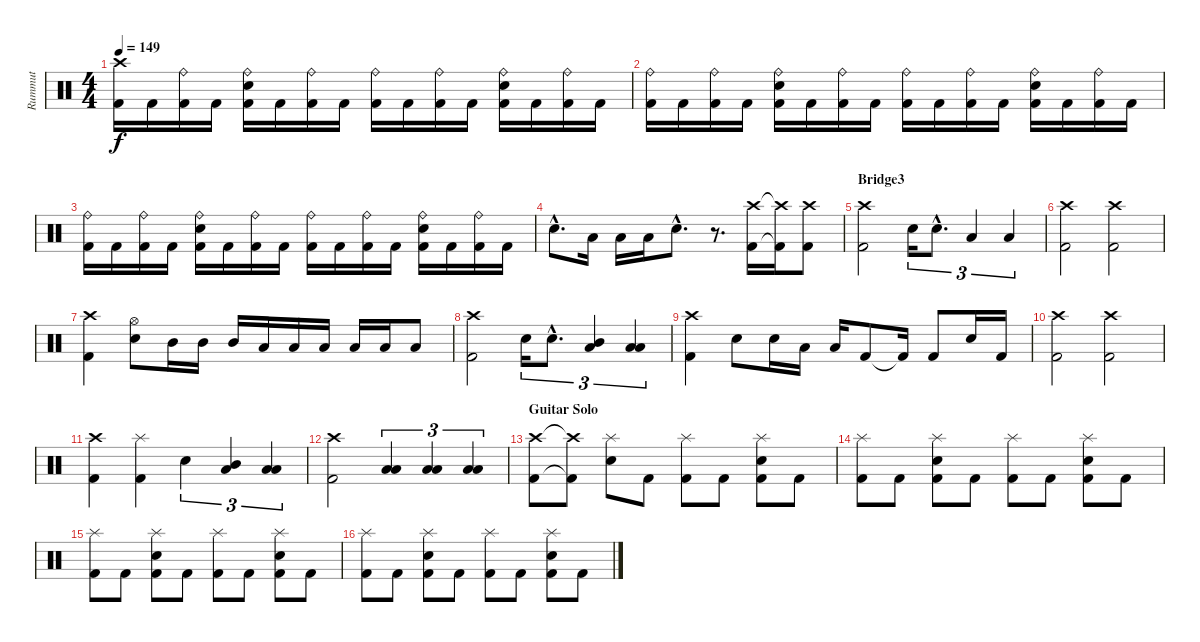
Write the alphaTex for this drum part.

\track ("Rummut" "Rummut") {instrument percussion}
\staff {score}
\articulation defaults
\ts (4 4)
\tempo 149
\clef neutral
\ks c
("Crash high (hit)" "Kick (hit) 2").16{dy f} "Kick (hit) 2".16 ("Ride (bell)" "Kick (hit) 2").16 "Kick (hit) 2".16 ("Ride (bell)" "Electric Snare (hit)" "Kick (hit) 2").16 "Kick (hit) 2".16 ("Ride (bell)" "Kick (hit) 2").16 "Kick (hit) 2".16 ("Ride (bell)" "Kick (hit) 2").16 "Kick (hit) 2".16 ("Ride (bell)" "Kick (hit) 2").16 "Kick (hit) 2".16 ("Ride (bell)" "Electric Snare (hit)" "Kick (hit) 2").16 "Kick (hit) 2".16 ("Ride (bell)" "Kick (hit) 2").16 "Kick (hit) 2".16 |
("Ride (bell)" "Kick (hit) 2").16 "Kick (hit) 2".16 ("Ride (bell)" "Kick (hit) 2").16 "Kick (hit) 2".16 ("Ride (bell)" "Electric Snare (hit)" "Kick (hit) 2").16 "Kick (hit) 2".16 ("Ride (bell)" "Kick (hit) 2").16 "Kick (hit) 2".16 ("Ride (bell)" "Kick (hit) 2").16 "Kick (hit) 2".16 ("Ride (bell)" "Kick (hit) 2").16 "Kick (hit) 2".16 ("Ride (bell)" "Electric Snare (hit)" "Kick (hit) 2").16 "Kick (hit) 2".16 ("Ride (bell)" "Kick (hit) 2").16 "Kick (hit) 2".16 |
("Ride (bell)" "Kick (hit) 2").16 "Kick (hit) 2".16 ("Ride (bell)" "Kick (hit) 2").16 "Kick (hit) 2".16 ("Ride (bell)" "Electric Snare (hit)" "Kick (hit) 2").16 "Kick (hit) 2".16 ("Ride (bell)" "Kick (hit) 2").16 "Kick (hit) 2".16 ("Ride (bell)" "Kick (hit) 2").16 "Kick (hit) 2".16 ("Ride (bell)" "Kick (hit) 2").16 "Kick (hit) 2".16 ("Ride (bell)" "Electric Snare (hit)" "Kick (hit) 2").16 "Kick (hit) 2".16 ("Ride (bell)" "Kick (hit) 2").16 "Kick (hit) 2".16 |
"Electric Snare (hit)"{hac}.8{d} "Low Tom (hit)".16 "Low Floor Tom (hit)".16 "Low Floor Tom (hit)".16 "Electric Snare (hit)"{hac}.8{d} r.8{d} ("Crash high (hit)" "Kick (hit) 2").16 ("Crash high (hit)"{t} "Kick (hit) 2"{t}).16 ("Crash high (hit)" "Kick (hit) 2").8 |
\section ("" "Bridge3")
("Crash high (hit)" "Kick (hit) 2").2 "Electric Snare (hit)".16{tu (3 2)} "Electric Snare (hit)"{hac}.8{d tu (3 2)} "Low Tom (hit)".4{tu (3 2)} "Low Floor Tom (hit)".4{tu (3 2)} |
("Crash high (hit)" "Kick (hit) 2").2 ("Crash high (hit)" "Kick (hit) 2").2 |
("Crash high (hit)" "Kick (hit) 2").4 ("Hi-Hat (open)" "Electric Snare (hit)").8 "Mid Tom (hit)".16 "Mid Tom (hit)".16 "Mid Tom (hit)".16 "Low Tom (hit)".16 "Low Tom (hit)".16 "Low Tom (hit)".16 "Low Tom (hit)".16 "Low Floor Tom (hit)".16 "Low Floor Tom (hit)".8 |
("Crash high (hit)" "Kick (hit) 2").2 "Electric Snare (hit)".16{tu (3 2)} "Electric Snare (hit)"{hac}.8{d tu (3 2)} ("Mid Tom (hit)" "Low Tom (hit)").4{tu (3 2)} ("Low Tom (hit)" "Low Floor Tom (hit)").4{tu (3 2)} |
("Crash high (hit)" "Kick (hit) 2").4 "Electric Snare (hit)".8 "Electric Snare (hit)".16 "Low Tom (hit)".16 "Low Floor Tom (hit)".16 "Kick (hit) 2".8 "Kick (hit) 2"{t}.16 "Kick (hit) 2".8 "Electric Snare (hit)".16 "Kick (hit) 2".16 |
("Crash high (hit)" "Kick (hit) 2").2 ("Crash high (hit)" "Kick (hit) 2").2 |
("Crash high (hit)" "Kick (hit) 2").4 ("Splash (hit)" "Kick (hit) 2").4 "Electric Snare (hit)".4{tu (3 2)} ("Mid Tom (hit)" "Low Tom (hit)").4{tu (3 2)} ("Low Tom (hit)" "Low Floor Tom (hit)").4{tu (3 2)} |
("Crash high (hit)" "Kick (hit) 2").2 ("Low Tom (hit)" "Low Floor Tom (hit)").4{tu (3 2)} ("Low Tom (hit)" "Low Floor Tom (hit)").4{tu (3 2)} ("Low Tom (hit)" "Low Floor Tom (hit)").4{tu (3 2)} |
\section ("" "Guitar Solo")
("Crash high (hit)" "Kick (hit) 2").8 ("Crash high (hit)"{t} "Kick (hit) 2"{t}).8 ("Splash (hit)" "Electric Snare (hit)").8 "Kick (hit) 2".8 ("Splash (hit)" "Kick (hit) 2").8 "Kick (hit) 2".8 ("Splash (hit)" "Electric Snare (hit)" "Kick (hit) 2").8 "Kick (hit) 2".8 |
("Splash (hit)" "Kick (hit) 2").8 "Kick (hit) 2".8 ("Splash (hit)" "Electric Snare (hit)" "Kick (hit) 2").8 "Kick (hit) 2".8 ("Splash (hit)" "Kick (hit) 2").8 "Kick (hit) 2".8 ("Splash (hit)" "Electric Snare (hit)" "Kick (hit) 2").8 "Kick (hit) 2".8 |
("Splash (hit)" "Kick (hit) 2").8 "Kick (hit) 2".8 ("Splash (hit)" "Electric Snare (hit)" "Kick (hit) 2").8 "Kick (hit) 2".8 ("Splash (hit)" "Kick (hit) 2").8 "Kick (hit) 2".8 ("Splash (hit)" "Electric Snare (hit)" "Kick (hit) 2").8 "Kick (hit) 2".8 |
("Splash (hit)" "Kick (hit) 2").8 "Kick (hit) 2".8 ("Splash (hit)" "Electric Snare (hit)" "Kick (hit) 2").8 "Kick (hit) 2".8 ("Splash (hit)" "Kick (hit) 2").8 "Kick (hit) 2".8 ("Splash (hit)" "Electric Snare (hit)" "Kick (hit) 2").8 "Kick (hit) 2".8
